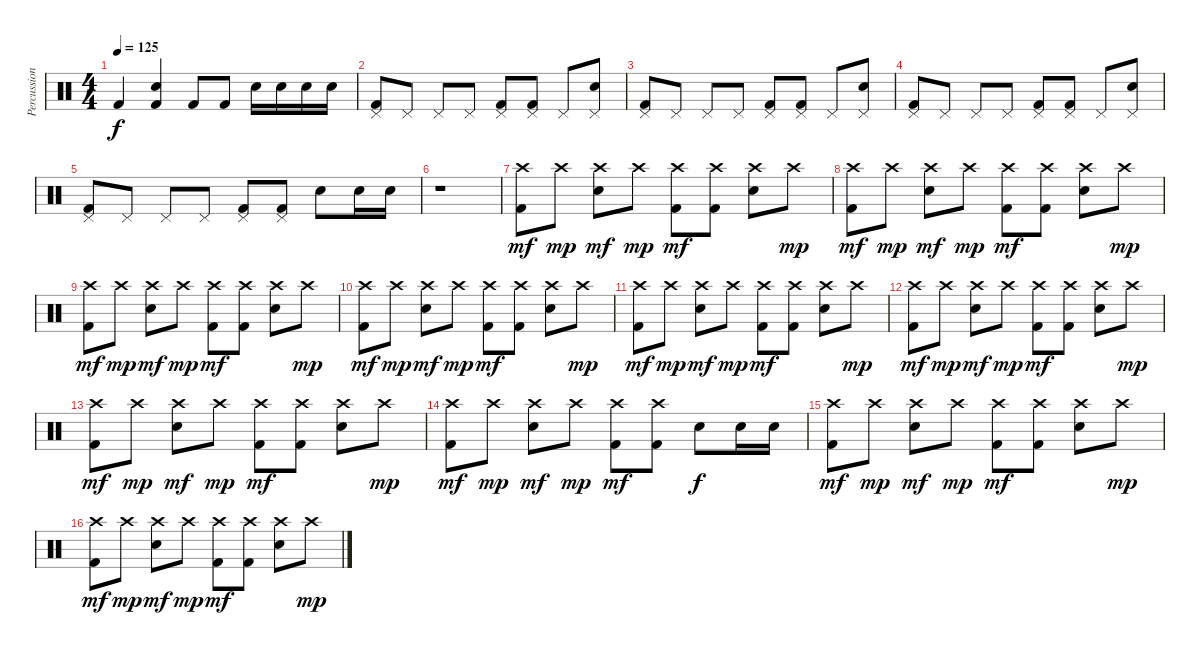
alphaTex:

\track ("Percussion" "Percussion") {instrument percussion}
\staff {score}
\articulation defaults
\ts (4 4)
\tempo 125
\clef neutral
\ks c "Kick (hit) 2".4{dy f}
("Electric Snare (hit)" "Kick (hit) 2").4 "Kick (hit) 2".8 "Kick (hit) 2".8 "Electric Snare (hit)".16 "Electric Snare (hit)".16 "Electric Snare (hit)".16 "Electric Snare (hit)".16 |
("Pedal Hi-Hat (hit)" "Kick (hit) 2").8 "Pedal Hi-Hat (hit)".8 "Pedal Hi-Hat (hit)".8 "Pedal Hi-Hat (hit)".8 ("Pedal Hi-Hat (hit)" "Kick (hit) 2").8 ("Pedal Hi-Hat (hit)" "Kick (hit) 2").8 "Pedal Hi-Hat (hit)".8 ("Pedal Hi-Hat (hit)" "Electric Snare (hit)").8 |
("Pedal Hi-Hat (hit)" "Kick (hit) 2").8 "Pedal Hi-Hat (hit)".8 "Pedal Hi-Hat (hit)".8 "Pedal Hi-Hat (hit)".8 ("Pedal Hi-Hat (hit)" "Kick (hit) 2").8 ("Pedal Hi-Hat (hit)" "Kick (hit) 2").8 "Pedal Hi-Hat (hit)".8 ("Pedal Hi-Hat (hit)" "Electric Snare (hit)").8 |
("Pedal Hi-Hat (hit)" "Kick (hit) 2").8 "Pedal Hi-Hat (hit)".8 "Pedal Hi-Hat (hit)".8 "Pedal Hi-Hat (hit)".8 ("Pedal Hi-Hat (hit)" "Kick (hit) 2").8 ("Pedal Hi-Hat (hit)" "Kick (hit) 2").8 "Pedal Hi-Hat (hit)".8 ("Pedal Hi-Hat (hit)" "Electric Snare (hit)").8 |
("Pedal Hi-Hat (hit)" "Kick (hit) 2").8 "Pedal Hi-Hat (hit)".8 "Pedal Hi-Hat (hit)".8 "Pedal Hi-Hat (hit)".8 ("Pedal Hi-Hat (hit)" "Kick (hit) 2").8 ("Pedal Hi-Hat (hit)" "Kick (hit) 2").8 "Electric Snare (hit)".8 "Electric Snare (hit)".16 "Electric Snare (hit)".16 |
r.1 |
("Crash high (hit)" "Kick (hit) 2").8{dy mf} "Crash high (hit)".8{dy mp} ("Crash high (hit)" "Electric Snare (hit)").8{dy mf} "Crash high (hit)".8{dy mp} ("Crash high (hit)" "Kick (hit) 2").8{dy mf} ("Crash high (hit)" "Kick (hit) 2").8 ("Crash high (hit)" "Electric Snare (hit)").8 "Crash high (hit)".8{dy mp} |
("Crash high (hit)" "Kick (hit) 2").8{dy mf} "Crash high (hit)".8{dy mp} ("Crash high (hit)" "Electric Snare (hit)").8{dy mf} "Crash high (hit)".8{dy mp} ("Crash high (hit)" "Kick (hit) 2").8{dy mf} ("Crash high (hit)" "Kick (hit) 2").8 ("Crash high (hit)" "Electric Snare (hit)").8 "Crash high (hit)".8{dy mp} |
("Crash high (hit)" "Kick (hit) 2").8{dy mf} "Crash high (hit)".8{dy mp} ("Crash high (hit)" "Electric Snare (hit)").8{dy mf} "Crash high (hit)".8{dy mp} ("Crash high (hit)" "Kick (hit) 2").8{dy mf} ("Crash high (hit)" "Kick (hit) 2").8 ("Crash high (hit)" "Electric Snare (hit)").8 "Crash high (hit)".8{dy mp} |
("Crash high (hit)" "Kick (hit) 2").8{dy mf} "Crash high (hit)".8{dy mp} ("Crash high (hit)" "Electric Snare (hit)").8{dy mf} "Crash high (hit)".8{dy mp} ("Crash high (hit)" "Kick (hit) 2").8{dy mf} ("Crash high (hit)" "Kick (hit) 2").8 ("Crash high (hit)" "Electric Snare (hit)").8 "Crash high (hit)".8{dy mp} |
("Crash high (hit)" "Kick (hit) 2").8{dy mf} "Crash high (hit)".8{dy mp} ("Crash high (hit)" "Electric Snare (hit)").8{dy mf} "Crash high (hit)".8{dy mp} ("Crash high (hit)" "Kick (hit) 2").8{dy mf} ("Crash high (hit)" "Kick (hit) 2").8 ("Crash high (hit)" "Electric Snare (hit)").8 "Crash high (hit)".8{dy mp} |
("Crash high (hit)" "Kick (hit) 2").8{dy mf} "Crash high (hit)".8{dy mp} ("Crash high (hit)" "Electric Snare (hit)").8{dy mf} "Crash high (hit)".8{dy mp} ("Crash high (hit)" "Kick (hit) 2").8{dy mf} ("Crash high (hit)" "Kick (hit) 2").8 ("Crash high (hit)" "Electric Snare (hit)").8 "Crash high (hit)".8{dy mp} |
("Crash high (hit)" "Kick (hit) 2").8{dy mf} "Crash high (hit)".8{dy mp} ("Crash high (hit)" "Electric Snare (hit)").8{dy mf} "Crash high (hit)".8{dy mp} ("Crash high (hit)" "Kick (hit) 2").8{dy mf} ("Crash high (hit)" "Kick (hit) 2").8 ("Crash high (hit)" "Electric Snare (hit)").8 "Crash high (hit)".8{dy mp} |
("Crash high (hit)" "Kick (hit) 2").8{dy mf} "Crash high (hit)".8{dy mp} ("Crash high (hit)" "Electric Snare (hit)").8{dy mf} "Crash high (hit)".8{dy mp} ("Crash high (hit)" "Kick (hit) 2").8{dy mf} ("Crash high (hit)" "Kick (hit) 2").8 "Electric Snare (hit)".8{dy f} "Electric Snare (hit)".16 "Electric Snare (hit)".16 |
("Crash high (hit)" "Kick (hit) 2").8{dy mf} "Crash high (hit)".8{dy mp} ("Crash high (hit)" "Electric Snare (hit)").8{dy mf} "Crash high (hit)".8{dy mp} ("Crash high (hit)" "Kick (hit) 2").8{dy mf} ("Crash high (hit)" "Kick (hit) 2").8 ("Crash high (hit)" "Electric Snare (hit)").8 "Crash high (hit)".8{dy mp} |
("Crash high (hit)" "Kick (hit) 2").8{dy mf} "Crash high (hit)".8{dy mp} ("Crash high (hit)" "Electric Snare (hit)").8{dy mf} "Crash high (hit)".8{dy mp} ("Crash high (hit)" "Kick (hit) 2").8{dy mf} ("Crash high (hit)" "Kick (hit) 2").8 ("Crash high (hit)" "Electric Snare (hit)").8 "Crash high (hit)".8{dy mp}
